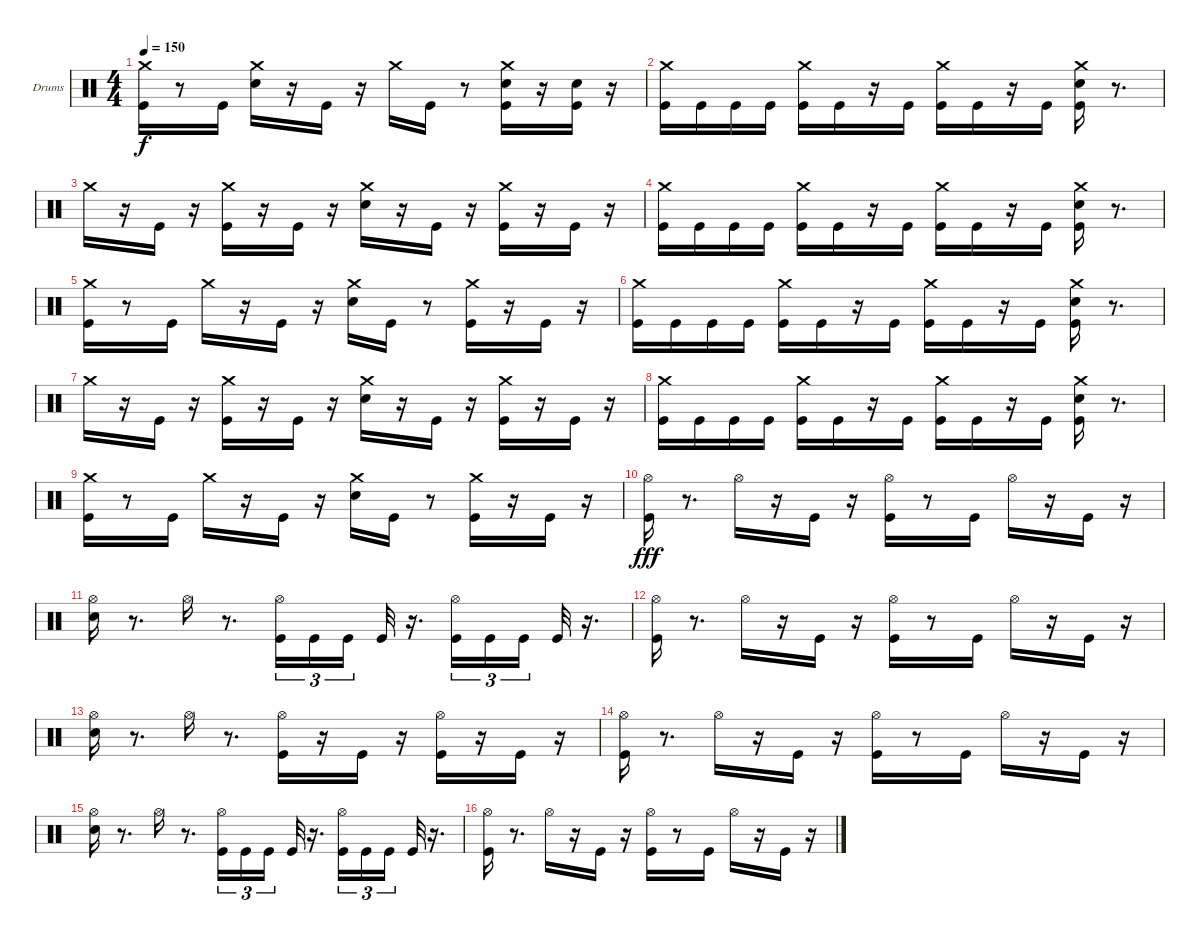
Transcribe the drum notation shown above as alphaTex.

\bracketExtendMode groupsimilarinstruments
\firstSystemTrackNameOrientation horizontal
\otherSystemsTrackNameOrientation horizontal
\track ("Rolo" "Drums") {instrument percussion}
\staff {score}
\articulation defaults
\ts (4 4)
\tempo 150
\clef neutral
\ks c
("Crash medium (hit)" "Kick (hit)").16{dy f} r.8 "Kick (hit)".16 ("Crash medium (hit)" "Snare (hit) 2").16 r.16 "Kick (hit)".16 r.16 "Crash medium (hit)".16 "Kick (hit)".16 r.8 ("Crash medium (hit)" "Snare (hit) 2" "Kick (hit)").16 r.16 ("Snare (hit) 2" "Kick (hit)").16 r.16 |
("Crash medium (hit)" "Kick (hit)").16 "Kick (hit)".16 "Kick (hit)".16 "Kick (hit)".16 ("Crash medium (hit)" "Kick (hit)").16 "Kick (hit)".16 r.16 "Kick (hit)".16 ("Crash medium (hit)" "Kick (hit)").16 "Kick (hit)".16 r.16 "Kick (hit)".16 ("Crash medium (hit)" "Snare (hit) 2" "Kick (hit)").16 r.8{d} |
"Crash medium (hit)".16 r.16 "Kick (hit)".16 r.16 ("Crash medium (hit)" "Kick (hit)").16 r.16 "Kick (hit)".16 r.16 ("Crash medium (hit)" "Snare (hit) 2").16 r.16 "Kick (hit)".16 r.16 ("Crash medium (hit)" "Kick (hit)").16 r.16 "Kick (hit)".16 r.16 |
("Crash medium (hit)" "Kick (hit)").16 "Kick (hit)".16 "Kick (hit)".16 "Kick (hit)".16 ("Crash medium (hit)" "Kick (hit)").16 "Kick (hit)".16 r.16 "Kick (hit)".16 ("Crash medium (hit)" "Kick (hit)").16 "Kick (hit)".16 r.16 "Kick (hit)".16 ("Crash medium (hit)" "Snare (hit) 2" "Kick (hit)").16 r.8{d} |
("Crash medium (hit)" "Kick (hit)").16 r.8 "Kick (hit)".16 "Crash medium (hit)".16 r.16 "Kick (hit)".16 r.16 ("Crash medium (hit)" "Snare (hit) 2").16 "Kick (hit)".16 r.8 ("Crash medium (hit)" "Kick (hit)").16 r.16 "Kick (hit)".16 r.16 |
("Crash medium (hit)" "Kick (hit)").16 "Kick (hit)".16 "Kick (hit)".16 "Kick (hit)".16 ("Crash medium (hit)" "Kick (hit)").16 "Kick (hit)".16 r.16 "Kick (hit)".16 ("Crash medium (hit)" "Kick (hit)").16 "Kick (hit)".16 r.16 "Kick (hit)".16 ("Crash medium (hit)" "Snare (hit) 2" "Kick (hit)").16 r.8{d} |
"Crash medium (hit)".16 r.16 "Kick (hit)".16 r.16 ("Crash medium (hit)" "Kick (hit)").16 r.16 "Kick (hit)".16 r.16 ("Crash medium (hit)" "Snare (hit) 2").16 r.16 "Kick (hit)".16 r.16 ("Crash medium (hit)" "Kick (hit)").16 r.16 "Kick (hit)".16 r.16 |
("Crash medium (hit)" "Kick (hit)").16 "Kick (hit)".16 "Kick (hit)".16 "Kick (hit)".16 ("Crash medium (hit)" "Kick (hit)").16 "Kick (hit)".16 r.16 "Kick (hit)".16 ("Crash medium (hit)" "Kick (hit)").16 "Kick (hit)".16 r.16 "Kick (hit)".16 ("Crash medium (hit)" "Snare (hit) 2" "Kick (hit)").16 r.8{d} |
("Crash medium (hit)" "Kick (hit)").16 r.8 "Kick (hit)".16 "Crash medium (hit)".16 r.16 "Kick (hit)".16 r.16 ("Crash medium (hit)" "Snare (hit) 2").16 "Kick (hit)".16 r.8 ("Crash medium (hit)" "Kick (hit)").16 r.16 "Kick (hit)".16 r.16 |
("Kick (hit)" "Hi-Hat (open)").16{dy fff} r.8{d} "Hi-Hat (open)".16 r.16 "Kick (hit)".16 r.16 ("Kick (hit)" "Hi-Hat (open)").16 r.8 "Kick (hit)".16 "Hi-Hat (open)".16 r.16 "Kick (hit)".16 r.16 |
("Snare (hit) 2" "Hi-Hat (open)").16 r.8{d} "Hi-Hat (open)".16 r.8{d} ("Kick (hit)" "Hi-Hat (open)").16{tu (3 2)} "Kick (hit)".16{tu (3 2)} "Kick (hit)".16{tu (3 2)} "Kick (hit)".32 r.16{d} ("Kick (hit)" "Hi-Hat (open)").16{tu (3 2)} "Kick (hit)".16{tu (3 2)} "Kick (hit)".16{tu (3 2)} "Kick (hit)".32 r.16{d} |
("Kick (hit)" "Hi-Hat (open)").16 r.8{d} "Hi-Hat (open)".16 r.16 "Kick (hit)".16 r.16 ("Kick (hit)" "Hi-Hat (open)").16 r.8 "Kick (hit)".16 "Hi-Hat (open)".16 r.16 "Kick (hit)".16 r.16 |
("Snare (hit) 2" "Hi-Hat (open)").16 r.8{d} "Hi-Hat (open)".16 r.8{d} ("Kick (hit)" "Hi-Hat (open)").16 r.16 "Kick (hit)".16 r.16 ("Kick (hit)" "Hi-Hat (open)").16 r.16 "Kick (hit)".16 r.16 |
("Kick (hit)" "Hi-Hat (open)").16 r.8{d} "Hi-Hat (open)".16 r.16 "Kick (hit)".16 r.16 ("Kick (hit)" "Hi-Hat (open)").16 r.8 "Kick (hit)".16 "Hi-Hat (open)".16 r.16 "Kick (hit)".16 r.16 |
("Snare (hit) 2" "Hi-Hat (open)").16 r.8{d} "Hi-Hat (open)".16 r.8{d} ("Kick (hit)" "Hi-Hat (open)").16{tu (3 2)} "Kick (hit)".16{tu (3 2)} "Kick (hit)".16{tu (3 2)} "Kick (hit)".32 r.16{d} ("Kick (hit)" "Hi-Hat (open)").16{tu (3 2)} "Kick (hit)".16{tu (3 2)} "Kick (hit)".16{tu (3 2)} "Kick (hit)".32 r.16{d} |
("Kick (hit)" "Hi-Hat (open)").16 r.8{d} "Hi-Hat (open)".16 r.16 "Kick (hit)".16 r.16 ("Kick (hit)" "Hi-Hat (open)").16 r.8 "Kick (hit)".16 "Hi-Hat (open)".16 r.16 "Kick (hit)".16 r.16
